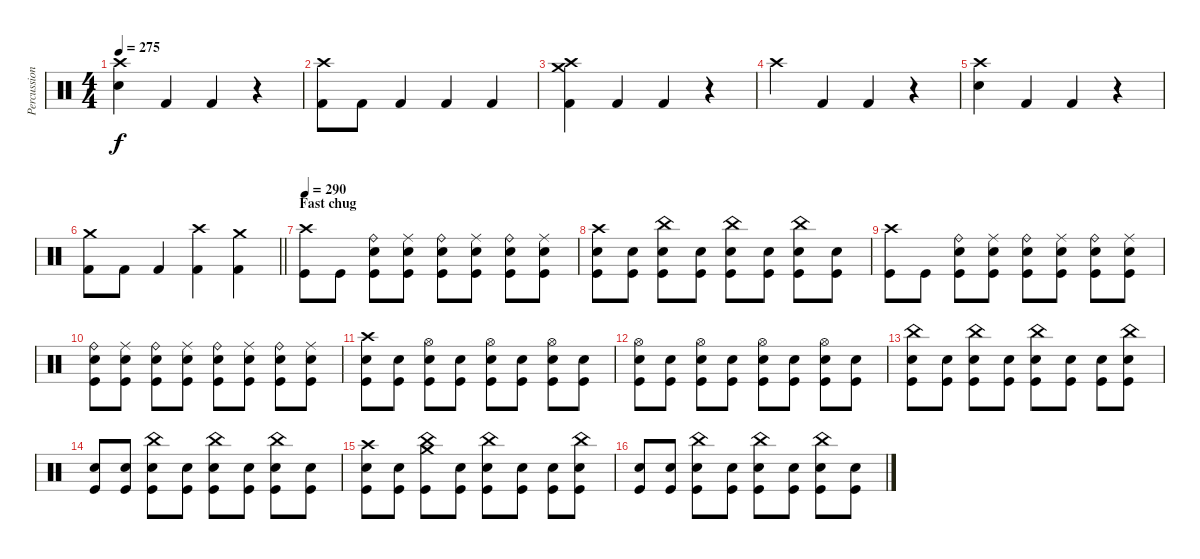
\track ("Percussion" "Percussion") {instrument percussion}
\staff {score}
\articulation defaults
\ts (4 4)
\tempo 275
\clef neutral
\ks c
("Crash high (hit)" "Electric Snare (hit)").4{dy f} "Kick (hit) 2".4 "Kick (hit) 2".4 r.4 |
("Crash high (hit)" "Kick (hit) 2").8 "Kick (hit) 2".8 "Kick (hit) 2".4 "Kick (hit) 2".4 "Kick (hit) 2".4 |
("Crash high (hit)" "Crash medium (hit)" "Kick (hit) 2").4 "Kick (hit) 2".4 "Kick (hit) 2".4 r.4 |
"Crash high (hit)".4 "Kick (hit) 2".4 "Kick (hit) 2".4 r.4 |
("Crash high (hit)" "Electric Snare (hit)").4 "Kick (hit) 2".4 "Kick (hit) 2".4 r.4 |
\barLineRight lightlight
("Crash medium (hit)" "Kick (hit) 2").8 "Kick (hit) 2".8 "Kick (hit) 2".4 ("Crash high (hit)" "Kick (hit) 2").4 ("Crash medium (hit)" "Kick (hit) 2").4 |
\section ("" "Fast chug")
\tempo 290
("Crash high (hit)" "Kick (hit)").8 "Kick (hit)".8 ("Electric Snare (hit)" "Ride (bell)" "Kick (hit)").8 ("Electric Snare (hit)" "Ride (middle)" "Kick (hit)").8 ("Electric Snare (hit)" "Ride (bell)" "Kick (hit)").8 ("Electric Snare (hit)" "Ride (middle)" "Kick (hit)").8 ("Electric Snare (hit)" "Ride (bell)" "Kick (hit)").8 ("Electric Snare (hit)" "Ride (middle)" "Kick (hit)").8 |
("Electric Snare (hit)" "Crash high (hit)" "Kick (hit)").8 ("Electric Snare (hit)" "Kick (hit)").8 ("Electric Snare (hit)" "China (hit)" "Kick (hit)").8 ("Electric Snare (hit)" "Kick (hit)").8 ("Electric Snare (hit)" "China (hit)" "Kick (hit)").8 ("Electric Snare (hit)" "Kick (hit)").8 ("Electric Snare (hit)" "China (hit)" "Kick (hit)").8 ("Electric Snare (hit)" "Kick (hit)").8 |
("Crash high (hit)" "Kick (hit)").8 "Kick (hit)".8 ("Electric Snare (hit)" "Ride (bell)" "Kick (hit)").8 ("Electric Snare (hit)" "Ride (middle)" "Kick (hit)").8 ("Electric Snare (hit)" "Ride (bell)" "Kick (hit)").8 ("Electric Snare (hit)" "Ride (middle)" "Kick (hit)").8 ("Electric Snare (hit)" "Ride (bell)" "Kick (hit)").8 ("Electric Snare (hit)" "Ride (middle)" "Kick (hit)").8 |
("Electric Snare (hit)" "Ride (bell)" "Kick (hit)").8 ("Electric Snare (hit)" "Ride (middle)" "Kick (hit)").8 ("Electric Snare (hit)" "Ride (bell)" "Kick (hit)").8 ("Electric Snare (hit)" "Ride (middle)" "Kick (hit)").8 ("Electric Snare (hit)" "Ride (bell)" "Kick (hit)").8 ("Electric Snare (hit)" "Ride (middle)" "Kick (hit)").8 ("Electric Snare (hit)" "Ride (bell)" "Kick (hit)").8 ("Electric Snare (hit)" "Ride (middle)" "Kick (hit)").8 |
("Crash high (hit)" "Kick (hit)" "Electric Snare (hit)").8 ("Kick (hit)" "Electric Snare (hit)").8 ("Electric Snare (hit)" "Hi-Hat (open)" "Kick (hit)").8 ("Electric Snare (hit)" "Kick (hit)").8 ("Electric Snare (hit)" "Hi-Hat (open)" "Kick (hit)").8 ("Electric Snare (hit)" "Kick (hit)").8 ("Electric Snare (hit)" "Hi-Hat (open)" "Kick (hit)").8 ("Electric Snare (hit)" "Kick (hit)").8 |
("Electric Snare (hit)" "Hi-Hat (open)" "Kick (hit)").8 ("Electric Snare (hit)" "Kick (hit)").8 ("Electric Snare (hit)" "Hi-Hat (open)" "Kick (hit)").8 ("Electric Snare (hit)" "Kick (hit)").8 ("Electric Snare (hit)" "Hi-Hat (open)" "Kick (hit)").8 ("Electric Snare (hit)" "Kick (hit)").8 ("Electric Snare (hit)" "Hi-Hat (open)" "Kick (hit)").8 ("Electric Snare (hit)" "Kick (hit)").8 |
("China (hit)" "Electric Snare (hit)" "Kick (hit)").8 ("Electric Snare (hit)" "Kick (hit)").8 ("Electric Snare (hit)" "China (hit)" "Kick (hit)").8 ("Electric Snare (hit)" "Kick (hit)").8 ("Electric Snare (hit)" "China (hit)" "Kick (hit)").8 ("Electric Snare (hit)" "Kick (hit)").8 ("Electric Snare (hit)" "Kick (hit)").8 ("Electric Snare (hit)" "China (hit)" "Kick (hit)").8 |
("Electric Snare (hit)" "Kick (hit)").8 ("Electric Snare (hit)" "Kick (hit)").8 ("Electric Snare (hit)" "China (hit)" "Kick (hit)").8 ("Electric Snare (hit)" "Kick (hit)").8 ("Electric Snare (hit)" "China (hit)" "Kick (hit)").8 ("Electric Snare (hit)" "Kick (hit)").8 ("Electric Snare (hit)" "China (hit)" "Kick (hit)").8 ("Electric Snare (hit)" "Kick (hit)").8 |
("Crash high (hit)" "Electric Snare (hit)" "Kick (hit)").8 ("Electric Snare (hit)" "Kick (hit)").8 ("Crash medium (hit)" "China (hit)" "Kick (hit)").8 ("Electric Snare (hit)" "Kick (hit)").8 ("Electric Snare (hit)" "China (hit)" "Kick (hit)").8 ("Electric Snare (hit)" "Kick (hit)").8 ("Electric Snare (hit)" "Kick (hit)").8 ("Electric Snare (hit)" "China (hit)" "Kick (hit)").8 |
("Electric Snare (hit)" "Kick (hit)").8 ("Electric Snare (hit)" "Kick (hit)").8 ("Electric Snare (hit)" "China (hit)" "Kick (hit)").8 ("Electric Snare (hit)" "Kick (hit)").8 ("Electric Snare (hit)" "China (hit)" "Kick (hit)").8 ("Electric Snare (hit)" "Kick (hit)").8 ("Electric Snare (hit)" "China (hit)" "Kick (hit)").8 ("Electric Snare (hit)" "Kick (hit)").8
